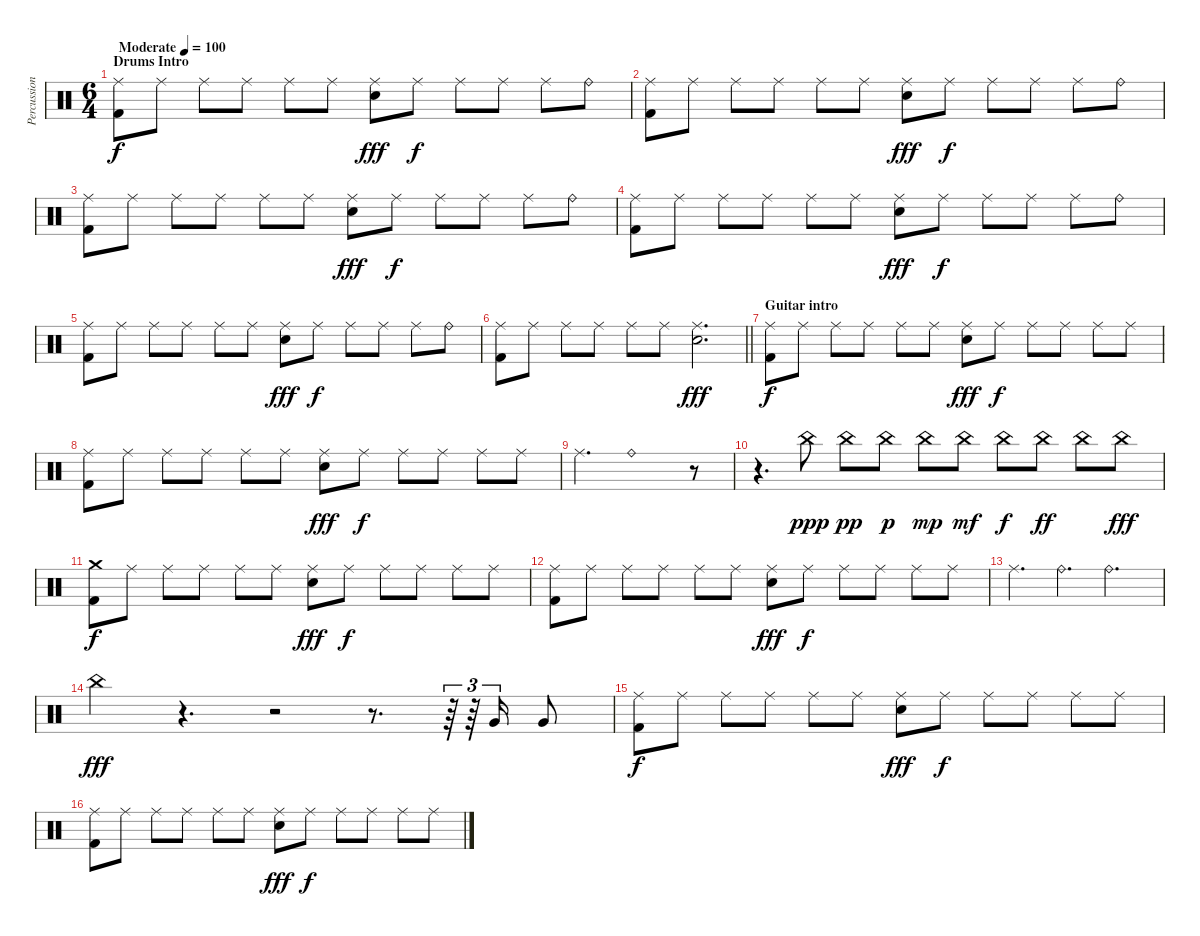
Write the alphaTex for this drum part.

\track ("Percussions" "Percussion") {instrument percussion}
\staff {score}
\articulation defaults
\ts (6 4)
\section ("" "Drums Intro")
\tempo (100 "Moderate")
\clef neutral
\ks c
("Kick (hit) 2" "Ride (middle)").8{dy f volume 2} "Ride (middle)".8{volume 13} "Ride (middle)".8 "Ride (middle)".8 "Ride (middle)".8 "Ride (middle)".8 ("Electric Snare (hit)" "Ride (middle)").8{dy fff} "Ride (middle)".8{dy f} "Ride (middle)".8 "Ride (middle)".8 "Ride (middle)".8 "Ride (bell)".8 |
("Kick (hit) 2" "Ride (middle)").8 "Ride (middle)".8 "Ride (middle)".8 "Ride (middle)".8 "Ride (middle)".8 "Ride (middle)".8 ("Electric Snare (hit)" "Ride (middle)").8{dy fff} "Ride (middle)".8{dy f} "Ride (middle)".8 "Ride (middle)".8 "Ride (middle)".8 "Ride (bell)".8 |
("Kick (hit) 2" "Ride (middle)").8 "Ride (middle)".8 "Ride (middle)".8 "Ride (middle)".8 "Ride (middle)".8 "Ride (middle)".8 ("Electric Snare (hit)" "Ride (middle)").8{dy fff} "Ride (middle)".8{dy f} "Ride (middle)".8 "Ride (middle)".8 "Ride (middle)".8 "Ride (bell)".8 |
("Kick (hit) 2" "Ride (middle)").8 "Ride (middle)".8 "Ride (middle)".8 "Ride (middle)".8 "Ride (middle)".8 "Ride (middle)".8 ("Electric Snare (hit)" "Ride (middle)").8{dy fff} "Ride (middle)".8{dy f} "Ride (middle)".8 "Ride (middle)".8 "Ride (middle)".8 "Ride (bell)".8 |
("Kick (hit) 2" "Ride (middle)").8 "Ride (middle)".8 "Ride (middle)".8 "Ride (middle)".8 "Ride (middle)".8 "Ride (middle)".8 ("Electric Snare (hit)" "Ride (middle)").8{dy fff} "Ride (middle)".8{dy f} "Ride (middle)".8 "Ride (middle)".8 "Ride (middle)".8 "Ride (bell)".8 |
\barLineRight lightlight
("Kick (hit) 2" "Ride (middle)").8 "Ride (middle)".8 "Ride (middle)".8 "Ride (middle)".8 "Ride (middle)".8 "Ride (middle)".8 ("Electric Snare (hit)" "Ride (middle)").2{d dy fff} |
\section ("" "Guitar intro")
("Kick (hit) 2" "Ride (middle)").8{dy f} "Ride (middle)".8 "Ride (middle)".8 "Ride (middle)".8 "Ride (middle)".8 "Ride (middle)".8 ("Electric Snare (hit)" "Ride (middle)").8{dy fff} "Ride (middle)".8{dy f} "Ride (middle)".8 "Ride (middle)".8 "Ride (middle)".8 "Ride (middle)".8 |
("Kick (hit) 2" "Ride (middle)").8 "Ride (middle)".8 "Ride (middle)".8 "Ride (middle)".8 "Ride (middle)".8 "Ride (middle)".8 ("Electric Snare (hit)" "Ride (middle)").8{dy fff} "Ride (middle)".8{dy f} "Ride (middle)".8 "Ride (middle)".8 "Ride (middle)".8 "Ride (middle)".8 |
"Ride (middle)".4{d} "Ride (bell)".1 r.8 |
r.4{d} "China (hit)".8{dy ppp} "China (hit)".8{dy pp} "China (hit)".8{dy p} "China (hit)".8{dy mp} "China (hit)".8{dy mf} "China (hit)".8{dy f} "China (hit)".8{dy ff} "China (hit)".8 "China (hit)".8{dy fff} |
("Crash medium (hit)" "Kick (hit) 2").8{dy f} "Ride (middle)".8 "Ride (middle)".8 "Ride (middle)".8 "Ride (middle)".8 "Ride (middle)".8 ("Electric Snare (hit)" "Ride (middle)").8{dy fff} "Ride (middle)".8{dy f} "Ride (middle)".8 "Ride (middle)".8 "Ride (middle)".8 "Ride (middle)".8 |
("Kick (hit) 2" "Ride (middle)").8 "Ride (middle)".8 "Ride (middle)".8 "Ride (middle)".8 "Ride (middle)".8 "Ride (middle)".8 ("Electric Snare (hit)" "Ride (middle)").8{dy fff} "Ride (middle)".8{dy f} "Ride (middle)".8 "Ride (middle)".8 "Ride (middle)".8 "Ride (middle)".8 |
"Ride (middle)".4{d} "Ride (bell)".4{d} "Ride (bell)".2{d} |
"China (hit)".4{dy fff} r.4{d} r.2 r.8{d} r.64{tu (3 2)} r.64{tu (3 2)} "Very Low Tom (hit)".16{tu (3 2)} "Very Low Tom (hit)".8 |
("Kick (hit) 2" "Ride (middle)").8{dy f} "Ride (middle)".8 "Ride (middle)".8 "Ride (middle)".8 "Ride (middle)".8 "Ride (middle)".8 ("Electric Snare (hit)" "Ride (middle)").8{dy fff} "Ride (middle)".8{dy f} "Ride (middle)".8 "Ride (middle)".8 "Ride (middle)".8 "Ride (middle)".8 |
("Kick (hit) 2" "Ride (middle)").8 "Ride (middle)".8 "Ride (middle)".8 "Ride (middle)".8 "Ride (middle)".8 "Ride (middle)".8 ("Electric Snare (hit)" "Ride (middle)").8{dy fff} "Ride (middle)".8{dy f} "Ride (middle)".8 "Ride (middle)".8 "Ride (middle)".8 "Ride (middle)".8
